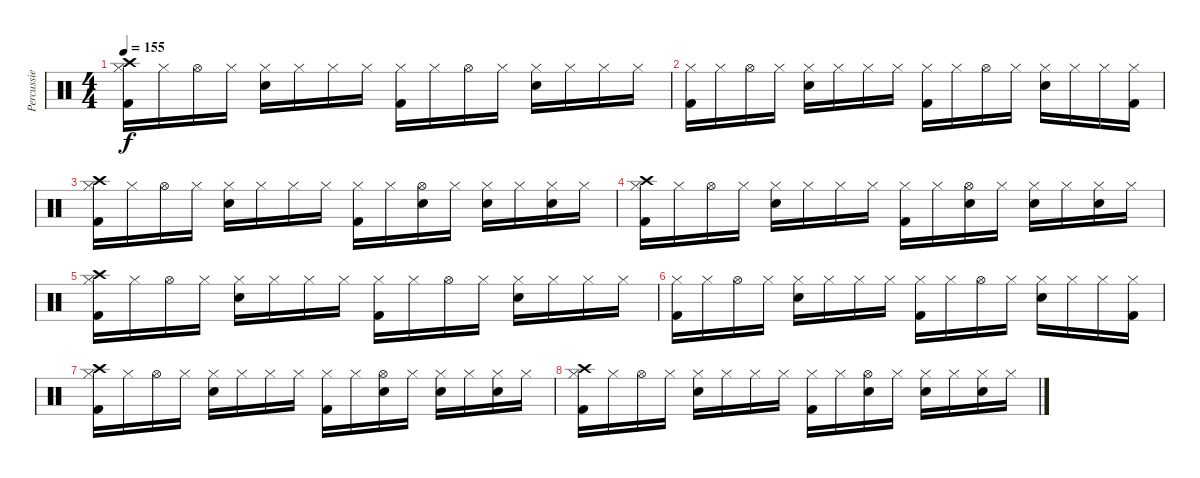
\track ("Percussie" "Percussie") {instrument percussion}
\staff {score}
\articulation defaults
\ts (4 4)
\tempo 155
\clef neutral
\ks c
("Kick (hit) 2" "Hi-Hat (closed)" "Crash high (hit)").16{dy f} "Hi-Hat (closed)".16 "Hi-Hat (open)".16 "Hi-Hat (closed)".16 ("Electric Snare (hit)" "Hi-Hat (closed)").16 "Hi-Hat (closed)".16 "Hi-Hat (closed)".16 "Hi-Hat (closed)".16 ("Kick (hit) 2" "Hi-Hat (closed)").16 "Hi-Hat (closed)".16 "Hi-Hat (open)".16 "Hi-Hat (closed)".16 ("Electric Snare (hit)" "Hi-Hat (closed)").16 "Hi-Hat (closed)".16 "Hi-Hat (closed)".16 "Hi-Hat (closed)".16 |
("Kick (hit) 2" "Hi-Hat (closed)").16 "Hi-Hat (closed)".16 "Hi-Hat (open)".16 "Hi-Hat (closed)".16 ("Electric Snare (hit)" "Hi-Hat (closed)").16 "Hi-Hat (closed)".16 "Hi-Hat (closed)".16 "Hi-Hat (closed)".16 ("Kick (hit) 2" "Hi-Hat (closed)").16 "Hi-Hat (closed)".16 "Hi-Hat (open)".16 "Hi-Hat (closed)".16 ("Electric Snare (hit)" "Hi-Hat (closed)").16 "Hi-Hat (closed)".16 "Hi-Hat (closed)".16 ("Kick (hit) 2" "Hi-Hat (closed)").16 |
("Kick (hit) 2" "Hi-Hat (closed)" "Crash high (hit)").16 "Hi-Hat (closed)".16 "Hi-Hat (open)".16 "Hi-Hat (closed)".16 ("Electric Snare (hit)" "Hi-Hat (closed)").16 "Hi-Hat (closed)".16 "Hi-Hat (closed)".16 "Hi-Hat (closed)".16 ("Kick (hit) 2" "Hi-Hat (closed)").16 "Hi-Hat (closed)".16 ("Electric Snare (hit)" "Hi-Hat (open)").16 "Hi-Hat (closed)".16 ("Electric Snare (hit)" "Hi-Hat (closed)").16 "Hi-Hat (closed)".16 ("Electric Snare (hit)" "Hi-Hat (closed)").16 "Hi-Hat (closed)".16 |
("Kick (hit) 2" "Hi-Hat (closed)" "Crash high (hit)").16 "Hi-Hat (closed)".16 "Hi-Hat (open)".16 "Hi-Hat (closed)".16 ("Electric Snare (hit)" "Hi-Hat (closed)").16 "Hi-Hat (closed)".16 "Hi-Hat (closed)".16 "Hi-Hat (closed)".16 ("Kick (hit) 2" "Hi-Hat (closed)").16 "Hi-Hat (closed)".16 ("Electric Snare (hit)" "Hi-Hat (open)").16 "Hi-Hat (closed)".16 ("Electric Snare (hit)" "Hi-Hat (closed)").16 "Hi-Hat (closed)".16 ("Electric Snare (hit)" "Hi-Hat (closed)").16 "Hi-Hat (closed)".16 |
("Kick (hit) 2" "Hi-Hat (closed)" "Crash high (hit)").16 "Hi-Hat (closed)".16 "Hi-Hat (open)".16 "Hi-Hat (closed)".16 ("Electric Snare (hit)" "Hi-Hat (closed)").16 "Hi-Hat (closed)".16 "Hi-Hat (closed)".16 "Hi-Hat (closed)".16 ("Kick (hit) 2" "Hi-Hat (closed)").16 "Hi-Hat (closed)".16 "Hi-Hat (open)".16 "Hi-Hat (closed)".16 ("Electric Snare (hit)" "Hi-Hat (closed)").16 "Hi-Hat (closed)".16 "Hi-Hat (closed)".16 "Hi-Hat (closed)".16 |
("Kick (hit) 2" "Hi-Hat (closed)").16 "Hi-Hat (closed)".16 "Hi-Hat (open)".16 "Hi-Hat (closed)".16 ("Electric Snare (hit)" "Hi-Hat (closed)").16 "Hi-Hat (closed)".16 "Hi-Hat (closed)".16 "Hi-Hat (closed)".16 ("Kick (hit) 2" "Hi-Hat (closed)").16 "Hi-Hat (closed)".16 "Hi-Hat (open)".16 "Hi-Hat (closed)".16 ("Electric Snare (hit)" "Hi-Hat (closed)").16 "Hi-Hat (closed)".16 "Hi-Hat (closed)".16 ("Kick (hit) 2" "Hi-Hat (closed)").16 |
("Kick (hit) 2" "Hi-Hat (closed)" "Crash high (hit)").16 "Hi-Hat (closed)".16 "Hi-Hat (open)".16 "Hi-Hat (closed)".16 ("Electric Snare (hit)" "Hi-Hat (closed)").16 "Hi-Hat (closed)".16 "Hi-Hat (closed)".16 "Hi-Hat (closed)".16 ("Kick (hit) 2" "Hi-Hat (closed)").16 "Hi-Hat (closed)".16 ("Electric Snare (hit)" "Hi-Hat (open)").16 "Hi-Hat (closed)".16 ("Electric Snare (hit)" "Hi-Hat (closed)").16 "Hi-Hat (closed)".16 ("Electric Snare (hit)" "Hi-Hat (closed)").16 "Hi-Hat (closed)".16 |
("Kick (hit) 2" "Hi-Hat (closed)" "Crash high (hit)").16 "Hi-Hat (closed)".16 "Hi-Hat (open)".16 "Hi-Hat (closed)".16 ("Electric Snare (hit)" "Hi-Hat (closed)").16 "Hi-Hat (closed)".16 "Hi-Hat (closed)".16 "Hi-Hat (closed)".16 ("Kick (hit) 2" "Hi-Hat (closed)").16 "Hi-Hat (closed)".16 ("Electric Snare (hit)" "Hi-Hat (open)").16 "Hi-Hat (closed)".16 ("Electric Snare (hit)" "Hi-Hat (closed)").16 "Hi-Hat (closed)".16 ("Electric Snare (hit)" "Hi-Hat (closed)").16 "Hi-Hat (closed)".16
